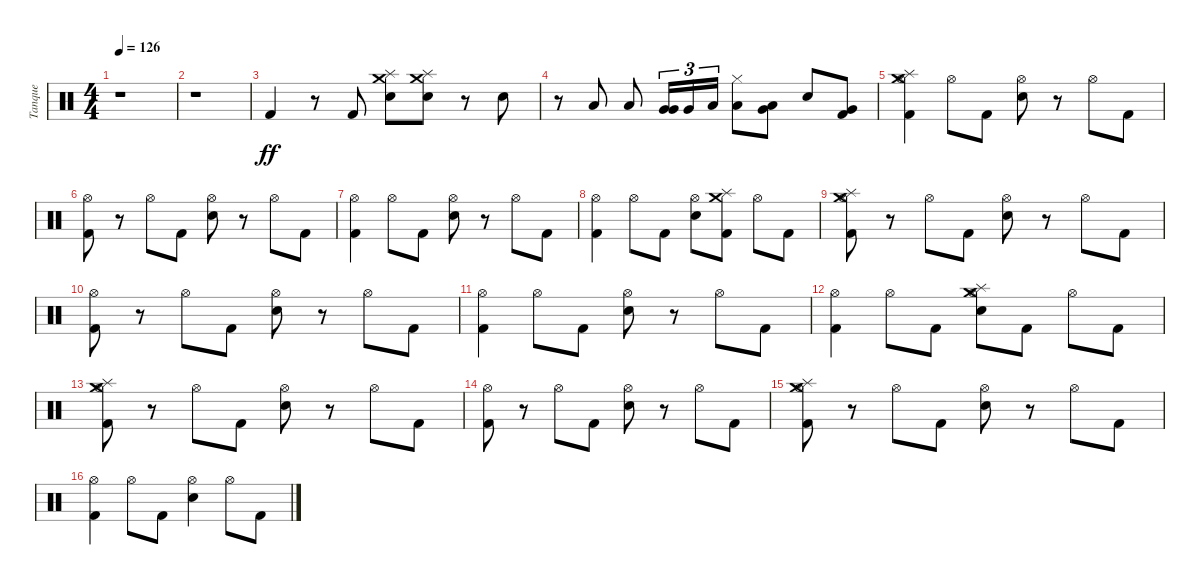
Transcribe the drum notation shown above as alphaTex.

\track ("Tanque" "Tanque") {instrument percussion}
\staff {score}
\articulation defaults
\ts (4 4)
\tempo 126
\clef neutral
\ks c
r.1{dy ff} |
r.1 |
"Kick (hit) 2".4 r.8 "Kick (hit) 2".8 ("Snare (hit) 2" "Splash (hit)" "Crash medium (hit)").8 ("Splash (hit)" "Crash medium (hit)" "Snare (hit) 2").8 r.8 "Snare (hit) 2".8 |
r.8 "Low Tom (hit)".8 "Low Tom (hit)".8 ("Very Low Tom (hit)" "Very Low Tom (hit)").16{tu (3 2)} "Very Low Tom (hit)".16{tu (3 2)} "Low Floor Tom (hit)".16{tu (3 2)} ("Low Tom (hit)" "Hi-Hat (closed)").8 ("Low Floor Tom (hit)" "Very Low Tom (hit)").8 "Snare (hit) 2".8 ("Kick (hit) 2" "Very Low Tom (hit)").8 |
("Kick (hit) 2" "Splash (hit)" "Crash medium (hit)" "Hi-Hat (open)").4 "Hi-Hat (open)".8 "Kick (hit) 2".8 ("Snare (hit) 2" "Hi-Hat (open)").8 r.8 "Hi-Hat (open)".8 "Kick (hit) 2".8 |
("Kick (hit) 2" "Hi-Hat (open)").8 r.8 "Hi-Hat (open)".8 "Kick (hit) 2".8 ("Snare (hit) 2" "Hi-Hat (open)").8 r.8 "Hi-Hat (open)".8 "Kick (hit) 2".8 |
("Hi-Hat (open)" "Kick (hit) 2").4 "Hi-Hat (open)".8 "Kick (hit) 2".8 ("Hi-Hat (open)" "Snare (hit) 2").8 r.8 "Hi-Hat (open)".8 "Kick (hit) 2".8 |
("Hi-Hat (open)" "Kick (hit) 2").4 "Hi-Hat (open)".8 "Kick (hit) 2".8 ("Hi-Hat (open)" "Snare (hit) 2").8 ("Kick (hit) 2" "Crash medium (hit)" "Splash (hit)").8 "Hi-Hat (open)".8 "Kick (hit) 2".8 |
("Hi-Hat (open)" "Crash medium (hit)" "Splash (hit)" "Kick (hit) 2").8 r.8 "Hi-Hat (open)".8 "Kick (hit) 2".8 ("Hi-Hat (open)" "Snare (hit) 2").8 r.8 "Hi-Hat (open)".8 "Kick (hit) 2".8 |
("Hi-Hat (open)" "Kick (hit) 2").8 r.8 "Hi-Hat (open)".8 "Kick (hit) 2".8 ("Hi-Hat (open)" "Snare (hit) 2").8 r.8 "Hi-Hat (open)".8 "Kick (hit) 2".8 |
("Hi-Hat (open)" "Kick (hit) 2").4 "Hi-Hat (open)".8 "Kick (hit) 2".8 ("Hi-Hat (open)" "Snare (hit) 2").8 r.8 "Hi-Hat (open)".8 "Kick (hit) 2".8 |
("Hi-Hat (open)" "Kick (hit) 2").4 "Hi-Hat (open)".8 "Kick (hit) 2".8 ("Hi-Hat (open)" "Crash medium (hit)" "Splash (hit)" "Snare (hit) 2").8 "Kick (hit) 2".8 "Hi-Hat (open)".8 "Kick (hit) 2".8 |
("Kick (hit) 2" "Splash (hit)" "Crash medium (hit)" "Hi-Hat (open)").8 r.8 "Hi-Hat (open)".8 "Kick (hit) 2".8 ("Snare (hit) 2" "Hi-Hat (open)").8 r.8 "Hi-Hat (open)".8 "Kick (hit) 2".8 |
("Kick (hit) 2" "Hi-Hat (open)").8 r.8 "Hi-Hat (open)".8 "Kick (hit) 2".8 ("Snare (hit) 2" "Hi-Hat (open)").8 r.8 "Hi-Hat (open)".8 "Kick (hit) 2".8 |
("Splash (hit)" "Crash medium (hit)" "Kick (hit) 2" "Hi-Hat (open)").8 r.8 "Hi-Hat (open)".8 "Kick (hit) 2".8 ("Snare (hit) 2" "Hi-Hat (open)").8 r.8 "Hi-Hat (open)".8 "Kick (hit) 2".8 |
("Kick (hit) 2" "Hi-Hat (open)").4 "Hi-Hat (open)".8 "Kick (hit) 2".8 ("Snare (hit) 2" "Hi-Hat (open)").4 "Hi-Hat (open)".8 "Kick (hit) 2".8
